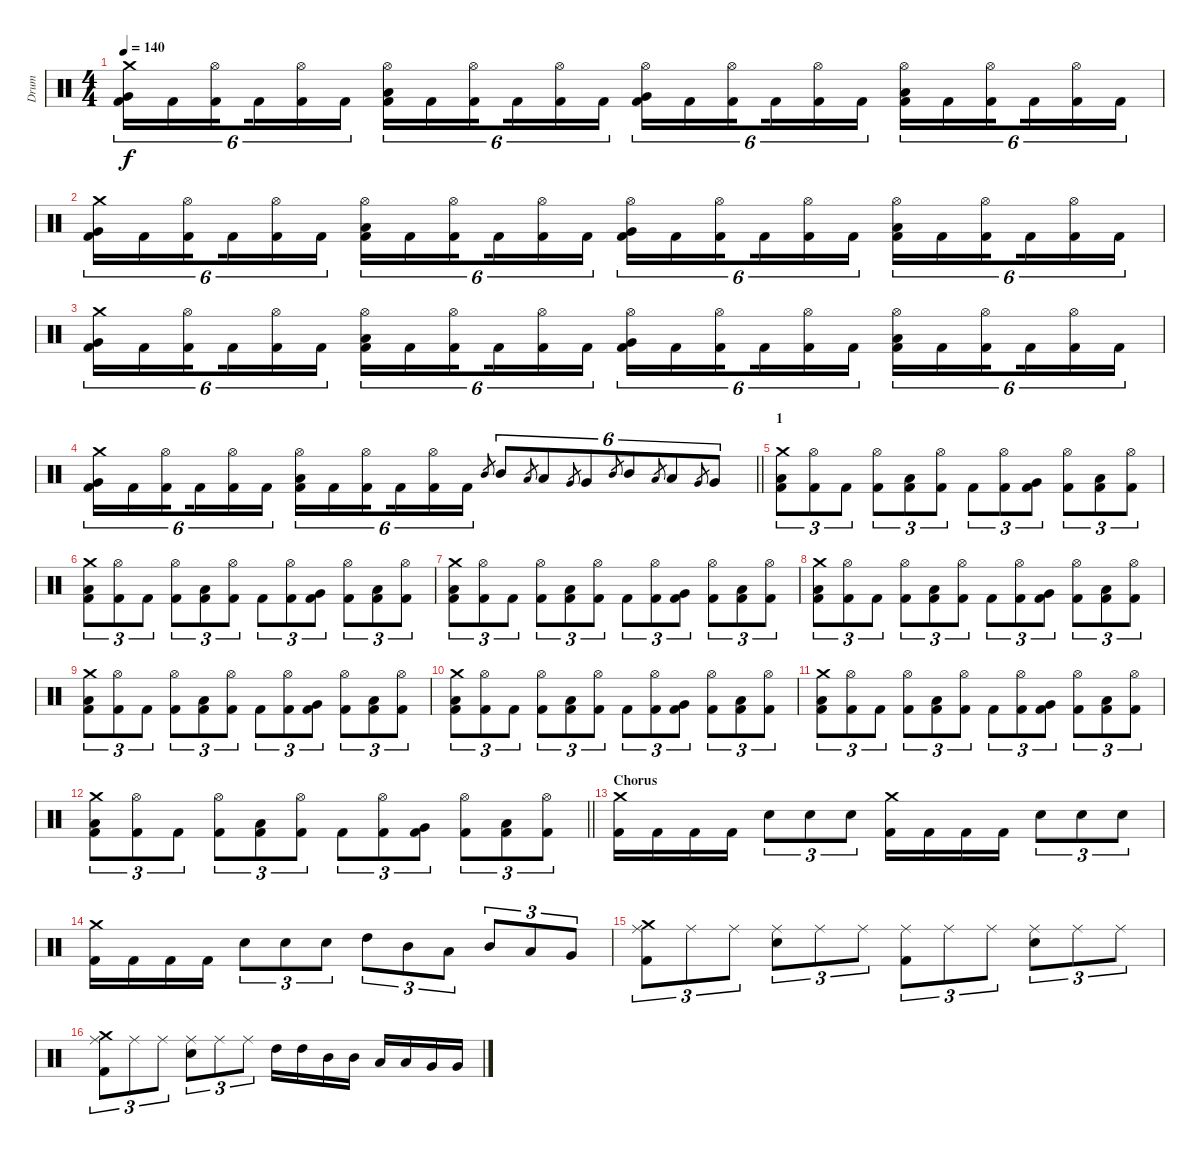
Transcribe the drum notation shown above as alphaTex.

\track ("Drum" "Drum") {instrument percussion}
\staff {score}
\articulation defaults
\ts (4 4)
\tempo 140
\clef neutral
\ks c
("Crash medium (hit)" "Very Low Tom (hit)" "Kick (hit) 2").16{tu (6 4) dy f} "Kick (hit) 2".16{tu (6 4)} ("Hi-Hat (open)" "Kick (hit) 2").16{tu (6 4) beam splitsecondary} "Kick (hit) 2".16{tu (6 4)} ("Hi-Hat (open)" "Kick (hit) 2").16{tu (6 4)} "Kick (hit) 2".16{tu (6 4)} ("Hi-Hat (open)" "Low Tom (hit)" "Kick (hit) 2").16{tu (6 4)} "Kick (hit) 2".16{tu (6 4)} ("Hi-Hat (open)" "Kick (hit) 2").16{tu (6 4) beam splitsecondary} "Kick (hit) 2".16{tu (6 4)} ("Hi-Hat (open)" "Kick (hit) 2").16{tu (6 4)} "Kick (hit) 2".16{tu (6 4)} ("Hi-Hat (open)" "Very Low Tom (hit)" "Kick (hit) 2").16{tu (6 4)} "Kick (hit) 2".16{tu (6 4)} ("Hi-Hat (open)" "Kick (hit) 2").16{tu (6 4) beam splitsecondary} "Kick (hit) 2".16{tu (6 4)} ("Hi-Hat (open)" "Kick (hit) 2").16{tu (6 4)} "Kick (hit) 2".16{tu (6 4)} ("Hi-Hat (open)" "Low Tom (hit)" "Kick (hit) 2").16{tu (6 4)} "Kick (hit) 2".16{tu (6 4)} ("Hi-Hat (open)" "Kick (hit) 2").16{tu (6 4) beam splitsecondary} "Kick (hit) 2".16{tu (6 4)} ("Hi-Hat (open)" "Kick (hit) 2").16{tu (6 4)} "Kick (hit) 2".16{tu (6 4)} |
("Crash medium (hit)" "Very Low Tom (hit)" "Kick (hit) 2").16{tu (6 4)} "Kick (hit) 2".16{tu (6 4)} ("Hi-Hat (open)" "Kick (hit) 2").16{tu (6 4) beam splitsecondary} "Kick (hit) 2".16{tu (6 4)} ("Hi-Hat (open)" "Kick (hit) 2").16{tu (6 4)} "Kick (hit) 2".16{tu (6 4)} ("Hi-Hat (open)" "Low Tom (hit)" "Kick (hit) 2").16{tu (6 4)} "Kick (hit) 2".16{tu (6 4)} ("Hi-Hat (open)" "Kick (hit) 2").16{tu (6 4) beam splitsecondary} "Kick (hit) 2".16{tu (6 4)} ("Hi-Hat (open)" "Kick (hit) 2").16{tu (6 4)} "Kick (hit) 2".16{tu (6 4)} ("Hi-Hat (open)" "Very Low Tom (hit)" "Kick (hit) 2").16{tu (6 4)} "Kick (hit) 2".16{tu (6 4)} ("Hi-Hat (open)" "Kick (hit) 2").16{tu (6 4) beam splitsecondary} "Kick (hit) 2".16{tu (6 4)} ("Hi-Hat (open)" "Kick (hit) 2").16{tu (6 4)} "Kick (hit) 2".16{tu (6 4)} ("Hi-Hat (open)" "Low Tom (hit)" "Kick (hit) 2").16{tu (6 4)} "Kick (hit) 2".16{tu (6 4)} ("Hi-Hat (open)" "Kick (hit) 2").16{tu (6 4) beam splitsecondary} "Kick (hit) 2".16{tu (6 4)} ("Hi-Hat (open)" "Kick (hit) 2").16{tu (6 4)} "Kick (hit) 2".16{tu (6 4)} |
("Crash medium (hit)" "Very Low Tom (hit)" "Kick (hit) 2").16{tu (6 4)} "Kick (hit) 2".16{tu (6 4)} ("Hi-Hat (open)" "Kick (hit) 2").16{tu (6 4) beam splitsecondary} "Kick (hit) 2".16{tu (6 4)} ("Hi-Hat (open)" "Kick (hit) 2").16{tu (6 4)} "Kick (hit) 2".16{tu (6 4)} ("Hi-Hat (open)" "Low Tom (hit)" "Kick (hit) 2").16{tu (6 4)} "Kick (hit) 2".16{tu (6 4)} ("Hi-Hat (open)" "Kick (hit) 2").16{tu (6 4) beam splitsecondary} "Kick (hit) 2".16{tu (6 4)} ("Hi-Hat (open)" "Kick (hit) 2").16{tu (6 4)} "Kick (hit) 2".16{tu (6 4)} ("Hi-Hat (open)" "Very Low Tom (hit)" "Kick (hit) 2").16{tu (6 4)} "Kick (hit) 2".16{tu (6 4)} ("Hi-Hat (open)" "Kick (hit) 2").16{tu (6 4) beam splitsecondary} "Kick (hit) 2".16{tu (6 4)} ("Hi-Hat (open)" "Kick (hit) 2").16{tu (6 4)} "Kick (hit) 2".16{tu (6 4)} ("Hi-Hat (open)" "Low Tom (hit)" "Kick (hit) 2").16{tu (6 4)} "Kick (hit) 2".16{tu (6 4)} ("Hi-Hat (open)" "Kick (hit) 2").16{tu (6 4) beam splitsecondary} "Kick (hit) 2".16{tu (6 4)} ("Hi-Hat (open)" "Kick (hit) 2").16{tu (6 4)} "Kick (hit) 2".16{tu (6 4)} |
\barLineRight lightlight
("Crash medium (hit)" "Very Low Tom (hit)" "Kick (hit) 2").16{tu (6 4)} "Kick (hit) 2".16{tu (6 4)} ("Hi-Hat (open)" "Kick (hit) 2").16{tu (6 4) beam splitsecondary} "Kick (hit) 2".16{tu (6 4)} ("Hi-Hat (open)" "Kick (hit) 2").16{tu (6 4)} "Kick (hit) 2".16{tu (6 4)} ("Hi-Hat (open)" "Low Tom (hit)" "Kick (hit) 2").16{tu (6 4)} "Kick (hit) 2".16{tu (6 4)} ("Hi-Hat (open)" "Kick (hit) 2").16{tu (6 4) beam splitsecondary} "Kick (hit) 2".16{tu (6 4)} ("Hi-Hat (open)" "Kick (hit) 2").16{tu (6 4)} "Kick (hit) 2".16{tu (6 4)} "Mid Tom (hit)".8{gr} "Mid Tom (hit)".8{tu (6 4)} "Low Tom (hit)".8{gr} "Low Tom (hit)".8{tu (6 4)} "Very Low Tom (hit)".8{gr} "Very Low Tom (hit)".8{tu (6 4)} "Mid Tom (hit)".8{gr} "Mid Tom (hit)".8{tu (6 4)} "Low Tom (hit)".8{gr} "Low Tom (hit)".8{tu (6 4)} "Very Low Tom (hit)".8{gr} "Very Low Tom (hit)".8{tu (6 4)} |
\section ("" "1")
("Crash medium (hit)" "Low Tom (hit)" "Kick (hit) 2").8{tu (3 2)} ("Hi-Hat (open)" "Kick (hit) 2").8{tu (3 2)} "Kick (hit) 2".8{tu (3 2)} ("Hi-Hat (open)" "Kick (hit) 2").8{tu (3 2)} ("Low Tom (hit)" "Kick (hit) 2").8{tu (3 2)} ("Hi-Hat (open)" "Kick (hit) 2").8{tu (3 2)} "Kick (hit) 2".8{tu (3 2)} ("Hi-Hat (open)" "Kick (hit) 2").8{tu (3 2)} ("Very Low Tom (hit)" "Kick (hit) 2").8{tu (3 2)} ("Hi-Hat (open)" "Kick (hit) 2").8{tu (3 2)} ("Low Floor Tom (hit)" "Kick (hit) 2").8{tu (3 2)} ("Hi-Hat (open)" "Kick (hit) 2").8{tu (3 2)} |
("Crash medium (hit)" "Low Tom (hit)" "Kick (hit) 2").8{tu (3 2)} ("Hi-Hat (open)" "Kick (hit) 2").8{tu (3 2)} "Kick (hit) 2".8{tu (3 2)} ("Hi-Hat (open)" "Kick (hit) 2").8{tu (3 2)} ("Low Tom (hit)" "Kick (hit) 2").8{tu (3 2)} ("Hi-Hat (open)" "Kick (hit) 2").8{tu (3 2)} "Kick (hit) 2".8{tu (3 2)} ("Hi-Hat (open)" "Kick (hit) 2").8{tu (3 2)} ("Very Low Tom (hit)" "Kick (hit) 2").8{tu (3 2)} ("Hi-Hat (open)" "Kick (hit) 2").8{tu (3 2)} ("Low Floor Tom (hit)" "Kick (hit) 2").8{tu (3 2)} ("Hi-Hat (open)" "Kick (hit) 2").8{tu (3 2)} |
("Crash medium (hit)" "Low Tom (hit)" "Kick (hit) 2").8{tu (3 2)} ("Hi-Hat (open)" "Kick (hit) 2").8{tu (3 2)} "Kick (hit) 2".8{tu (3 2)} ("Hi-Hat (open)" "Kick (hit) 2").8{tu (3 2)} ("Low Tom (hit)" "Kick (hit) 2").8{tu (3 2)} ("Hi-Hat (open)" "Kick (hit) 2").8{tu (3 2)} "Kick (hit) 2".8{tu (3 2)} ("Hi-Hat (open)" "Kick (hit) 2").8{tu (3 2)} ("Very Low Tom (hit)" "Kick (hit) 2").8{tu (3 2)} ("Hi-Hat (open)" "Kick (hit) 2").8{tu (3 2)} ("Low Floor Tom (hit)" "Kick (hit) 2").8{tu (3 2)} ("Hi-Hat (open)" "Kick (hit) 2").8{tu (3 2)} |
("Crash medium (hit)" "Low Tom (hit)" "Kick (hit) 2").8{tu (3 2)} ("Hi-Hat (open)" "Kick (hit) 2").8{tu (3 2)} "Kick (hit) 2".8{tu (3 2)} ("Hi-Hat (open)" "Kick (hit) 2").8{tu (3 2)} ("Low Tom (hit)" "Kick (hit) 2").8{tu (3 2)} ("Hi-Hat (open)" "Kick (hit) 2").8{tu (3 2)} "Kick (hit) 2".8{tu (3 2)} ("Hi-Hat (open)" "Kick (hit) 2").8{tu (3 2)} ("Very Low Tom (hit)" "Kick (hit) 2").8{tu (3 2)} ("Hi-Hat (open)" "Kick (hit) 2").8{tu (3 2)} ("Low Floor Tom (hit)" "Kick (hit) 2").8{tu (3 2)} ("Hi-Hat (open)" "Kick (hit) 2").8{tu (3 2)} |
("Crash medium (hit)" "Low Tom (hit)" "Kick (hit) 2").8{tu (3 2)} ("Hi-Hat (open)" "Kick (hit) 2").8{tu (3 2)} "Kick (hit) 2".8{tu (3 2)} ("Hi-Hat (open)" "Kick (hit) 2").8{tu (3 2)} ("Low Tom (hit)" "Kick (hit) 2").8{tu (3 2)} ("Hi-Hat (open)" "Kick (hit) 2").8{tu (3 2)} "Kick (hit) 2".8{tu (3 2)} ("Hi-Hat (open)" "Kick (hit) 2").8{tu (3 2)} ("Very Low Tom (hit)" "Kick (hit) 2").8{tu (3 2)} ("Hi-Hat (open)" "Kick (hit) 2").8{tu (3 2)} ("Low Floor Tom (hit)" "Kick (hit) 2").8{tu (3 2)} ("Hi-Hat (open)" "Kick (hit) 2").8{tu (3 2)} |
("Crash medium (hit)" "Low Tom (hit)" "Kick (hit) 2").8{tu (3 2)} ("Hi-Hat (open)" "Kick (hit) 2").8{tu (3 2)} "Kick (hit) 2".8{tu (3 2)} ("Hi-Hat (open)" "Kick (hit) 2").8{tu (3 2)} ("Low Tom (hit)" "Kick (hit) 2").8{tu (3 2)} ("Hi-Hat (open)" "Kick (hit) 2").8{tu (3 2)} "Kick (hit) 2".8{tu (3 2)} ("Hi-Hat (open)" "Kick (hit) 2").8{tu (3 2)} ("Very Low Tom (hit)" "Kick (hit) 2").8{tu (3 2)} ("Hi-Hat (open)" "Kick (hit) 2").8{tu (3 2)} ("Low Floor Tom (hit)" "Kick (hit) 2").8{tu (3 2)} ("Hi-Hat (open)" "Kick (hit) 2").8{tu (3 2)} |
("Crash medium (hit)" "Low Tom (hit)" "Kick (hit) 2").8{tu (3 2)} ("Hi-Hat (open)" "Kick (hit) 2").8{tu (3 2)} "Kick (hit) 2".8{tu (3 2)} ("Hi-Hat (open)" "Kick (hit) 2").8{tu (3 2)} ("Low Tom (hit)" "Kick (hit) 2").8{tu (3 2)} ("Hi-Hat (open)" "Kick (hit) 2").8{tu (3 2)} "Kick (hit) 2".8{tu (3 2)} ("Hi-Hat (open)" "Kick (hit) 2").8{tu (3 2)} ("Very Low Tom (hit)" "Kick (hit) 2").8{tu (3 2)} ("Hi-Hat (open)" "Kick (hit) 2").8{tu (3 2)} ("Low Floor Tom (hit)" "Kick (hit) 2").8{tu (3 2)} ("Hi-Hat (open)" "Kick (hit) 2").8{tu (3 2)} |
\barLineRight lightlight
("Crash medium (hit)" "Low Tom (hit)" "Kick (hit) 2").8{tu (3 2)} ("Hi-Hat (open)" "Kick (hit) 2").8{tu (3 2)} "Kick (hit) 2".8{tu (3 2)} ("Hi-Hat (open)" "Kick (hit) 2").8{tu (3 2)} ("Low Tom (hit)" "Kick (hit) 2").8{tu (3 2)} ("Hi-Hat (open)" "Kick (hit) 2").8{tu (3 2)} "Kick (hit) 2".8{tu (3 2)} ("Hi-Hat (open)" "Kick (hit) 2").8{tu (3 2)} ("Very Low Tom (hit)" "Kick (hit) 2").8{tu (3 2)} ("Hi-Hat (open)" "Kick (hit) 2").8{tu (3 2)} ("Low Floor Tom (hit)" "Kick (hit) 2").8{tu (3 2)} ("Hi-Hat (open)" "Kick (hit) 2").8{tu (3 2)} |
\section ("" "Chorus")
("Crash medium (hit)" "Kick (hit) 2").16 "Kick (hit) 2".16 "Kick (hit) 2".16 "Kick (hit) 2".16 "Electric Snare (hit)".8{tu (3 2)} "Electric Snare (hit)".8{tu (3 2)} "Electric Snare (hit)".8{tu (3 2)} ("Crash medium (hit)" "Kick (hit) 2").16 "Kick (hit) 2".16 "Kick (hit) 2".16 "Kick (hit) 2".16 "Electric Snare (hit)".8{tu (3 2)} "Electric Snare (hit)".8{tu (3 2)} "Electric Snare (hit)".8{tu (3 2)} |
("Crash medium (hit)" "Kick (hit) 2").16 "Kick (hit) 2".16 "Kick (hit) 2".16 "Kick (hit) 2".16 "Electric Snare (hit)".8{tu (3 2)} "Electric Snare (hit)".8{tu (3 2)} "Electric Snare (hit)".8{tu (3 2)} "High Tom (hit)".8{tu (3 2)} "Mid Tom (hit)".8{tu (3 2)} "Low Tom (hit)".8{tu (3 2)} "Mid Tom (hit)".8{tu (3 2)} "Low Tom (hit)".8{tu (3 2)} "Very Low Tom (hit)".8{tu (3 2)} |
("Crash medium (hit)" "Ride (middle)" "Kick (hit) 2").8{tu (3 2)} "Ride (middle)".8{tu (3 2)} "Ride (middle)".8{tu (3 2)} ("Ride (middle)" "Electric Snare (hit)").8{tu (3 2)} "Ride (middle)".8{tu (3 2)} "Ride (middle)".8{tu (3 2)} ("Ride (middle)" "Kick (hit) 2").8{tu (3 2)} "Ride (middle)".8{tu (3 2)} "Ride (middle)".8{tu (3 2)} ("Ride (middle)" "Electric Snare (hit)").8{tu (3 2)} "Ride (middle)".8{tu (3 2)} "Ride (middle)".8{tu (3 2)} |
("Crash medium (hit)" "Ride (middle)" "Kick (hit) 2").8{tu (3 2)} "Ride (middle)".8{tu (3 2)} "Ride (middle)".8{tu (3 2)} ("Ride (middle)" "Electric Snare (hit)").8{tu (3 2)} "Ride (middle)".8{tu (3 2)} "Ride (middle)".8{tu (3 2)} "High Tom (hit)".16 "High Tom (hit)".16 "Mid Tom (hit)".16 "Mid Tom (hit)".16 "Low Tom (hit)".16 "Low Tom (hit)".16 "Very Low Tom (hit)".16 "Very Low Tom (hit)".16
